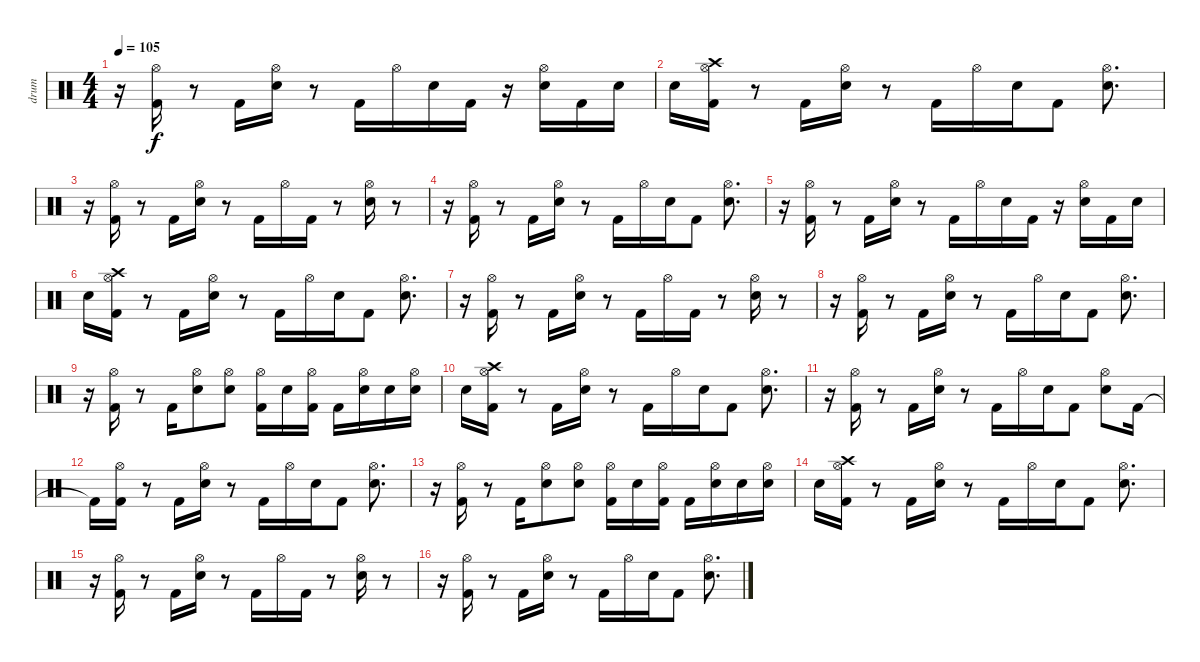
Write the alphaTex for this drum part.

\track ("drum" "drum") {instrument percussion}
\staff {score}
\articulation defaults
\ts (4 4)
\tempo 105
\clef neutral
\ks c
r.16{dy f} ("Hi-Hat (open)" "Kick (hit) 2").16 r.8 "Kick (hit) 2".16 ("Hi-Hat (open)" "Electric Snare (hit)").16 r.8 "Kick (hit) 2".16 "Hi-Hat (open)".16 "Electric Snare (hit)".16 "Kick (hit) 2".16 r.16 ("Hi-Hat (open)" "Electric Snare (hit)").16 "Kick (hit) 2".16 "Electric Snare (hit)".16 |
"Electric Snare (hit)".16 ("Crash high (hit)" "Hi-Hat (open)" "Kick (hit) 2").16 r.8 "Kick (hit) 2".16 ("Hi-Hat (open)" "Electric Snare (hit)").16 r.8 "Kick (hit) 2".16 "Hi-Hat (open)".16 "Electric Snare (hit)".16 "Kick (hit) 2".8 ("Hi-Hat (open)" "Electric Snare (hit)").8{d} |
r.16 ("Hi-Hat (open)" "Kick (hit) 2").16 r.8 "Kick (hit) 2".16 ("Hi-Hat (open)" "Electric Snare (hit)").16 r.8 "Kick (hit) 2".16 "Hi-Hat (open)".16 "Kick (hit) 2".16 r.8 ("Hi-Hat (open)" "Electric Snare (hit)").16 r.8 |
r.16 ("Hi-Hat (open)" "Kick (hit) 2").16 r.8 "Kick (hit) 2".16 ("Hi-Hat (open)" "Electric Snare (hit)").16 r.8 "Kick (hit) 2".16 "Hi-Hat (open)".16 "Electric Snare (hit)".16 "Kick (hit) 2".8 ("Hi-Hat (open)" "Electric Snare (hit)").8{d} |
r.16 ("Hi-Hat (open)" "Kick (hit) 2").16 r.8 "Kick (hit) 2".16 ("Hi-Hat (open)" "Electric Snare (hit)").16 r.8 "Kick (hit) 2".16 "Hi-Hat (open)".16 "Electric Snare (hit)".16 "Kick (hit) 2".16 r.16 ("Hi-Hat (open)" "Electric Snare (hit)").16 "Kick (hit) 2".16 "Electric Snare (hit)".16 |
"Electric Snare (hit)".16 ("Crash high (hit)" "Hi-Hat (open)" "Kick (hit) 2").16 r.8 "Kick (hit) 2".16 ("Hi-Hat (open)" "Electric Snare (hit)").16 r.8 "Kick (hit) 2".16 "Hi-Hat (open)".16 "Electric Snare (hit)".16 "Kick (hit) 2".8 ("Hi-Hat (open)" "Electric Snare (hit)").8{d} |
r.16 ("Hi-Hat (open)" "Kick (hit) 2").16 r.8 "Kick (hit) 2".16 ("Hi-Hat (open)" "Electric Snare (hit)").16 r.8 "Kick (hit) 2".16 "Hi-Hat (open)".16 "Kick (hit) 2".16 r.8 ("Hi-Hat (open)" "Electric Snare (hit)").16 r.8 |
r.16 ("Hi-Hat (open)" "Kick (hit) 2").16 r.8 "Kick (hit) 2".16 ("Hi-Hat (open)" "Electric Snare (hit)").16 r.8 "Kick (hit) 2".16 "Hi-Hat (open)".16 "Electric Snare (hit)".16 "Kick (hit) 2".8 ("Hi-Hat (open)" "Electric Snare (hit)").8{d} |
r.16 ("Hi-Hat (open)" "Kick (hit) 2").16 r.8 "Kick (hit) 2".16 ("Hi-Hat (open)" "Electric Snare (hit)").8 ("Hi-Hat (open)" "Electric Snare (hit)").8 ("Hi-Hat (open)" "Kick (hit) 2").16 "Electric Snare (hit)".16 ("Hi-Hat (open)" "Kick (hit) 2").16 "Kick (hit) 2".16 ("Hi-Hat (open)" "Electric Snare (hit)").16 "Electric Snare (hit)".16 ("Hi-Hat (open)" "Electric Snare (hit)").16 |
"Electric Snare (hit)".16 ("Crash high (hit)" "Hi-Hat (open)" "Kick (hit) 2").16 r.8 "Kick (hit) 2".16 ("Hi-Hat (open)" "Electric Snare (hit)").16 r.8 "Kick (hit) 2".16 "Hi-Hat (open)".16 "Electric Snare (hit)".16 "Kick (hit) 2".8 ("Hi-Hat (open)" "Electric Snare (hit)").8{d} |
r.16 ("Hi-Hat (open)" "Kick (hit) 2").16 r.8 "Kick (hit) 2".16 ("Hi-Hat (open)" "Electric Snare (hit)").16 r.8 "Kick (hit) 2".16 "Hi-Hat (open)".16 "Electric Snare (hit)".16 "Kick (hit) 2".8 ("Hi-Hat (open)" "Electric Snare (hit)").8 "Kick (hit) 2".16 |
"Kick (hit) 2"{t}.16 ("Hi-Hat (open)" "Kick (hit) 2").16 r.8 "Kick (hit) 2".16 ("Hi-Hat (open)" "Electric Snare (hit)").16 r.8 "Kick (hit) 2".16 "Hi-Hat (open)".16 "Electric Snare (hit)".16 "Kick (hit) 2".8 ("Hi-Hat (open)" "Electric Snare (hit)").8{d} |
r.16 ("Hi-Hat (open)" "Kick (hit) 2").16 r.8 "Kick (hit) 2".16 ("Hi-Hat (open)" "Electric Snare (hit)").8 ("Hi-Hat (open)" "Electric Snare (hit)").8 ("Hi-Hat (open)" "Kick (hit) 2").16 "Electric Snare (hit)".16 ("Hi-Hat (open)" "Kick (hit) 2").16 "Kick (hit) 2".16 ("Hi-Hat (open)" "Electric Snare (hit)").16 "Electric Snare (hit)".16 ("Hi-Hat (open)" "Electric Snare (hit)").16 |
"Electric Snare (hit)".16 ("Crash high (hit)" "Hi-Hat (open)" "Kick (hit) 2").16 r.8 "Kick (hit) 2".16 ("Hi-Hat (open)" "Electric Snare (hit)").16 r.8 "Kick (hit) 2".16 "Hi-Hat (open)".16 "Electric Snare (hit)".16 "Kick (hit) 2".8 ("Hi-Hat (open)" "Electric Snare (hit)").8{d} |
r.16 ("Hi-Hat (open)" "Kick (hit) 2").16 r.8 "Kick (hit) 2".16 ("Hi-Hat (open)" "Electric Snare (hit)").16 r.8 "Kick (hit) 2".16 "Hi-Hat (open)".16 "Kick (hit) 2".16 r.8 ("Hi-Hat (open)" "Electric Snare (hit)").16 r.8 |
r.16 ("Hi-Hat (open)" "Kick (hit) 2").16 r.8 "Kick (hit) 2".16 ("Hi-Hat (open)" "Electric Snare (hit)").16 r.8 "Kick (hit) 2".16 "Hi-Hat (open)".16 "Electric Snare (hit)".16 "Kick (hit) 2".8 ("Hi-Hat (open)" "Electric Snare (hit)").8{d}
